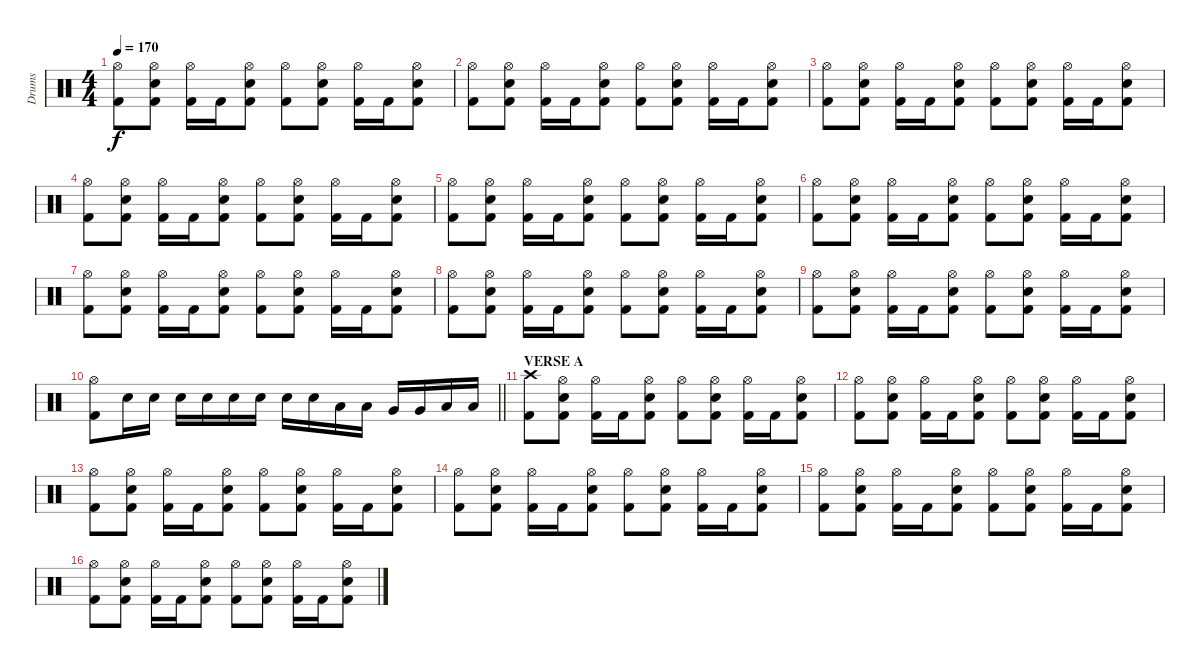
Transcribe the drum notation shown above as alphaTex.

\track ("Drums" "Drums") {instrument percussion}
\staff {score}
\articulation defaults
\ts (4 4)
\tempo 170
\clef neutral
\ks c
("Hi-Hat (open)" "Kick (hit) 2").8{dy f} ("Hi-Hat (open)" "Snare (hit) 2" "Kick (hit) 2").8 ("Hi-Hat (open)" "Kick (hit) 2").16 "Kick (hit) 2".16 ("Hi-Hat (open)" "Snare (hit) 2" "Kick (hit) 2").8 ("Hi-Hat (open)" "Kick (hit) 2").8 ("Hi-Hat (open)" "Snare (hit) 2" "Kick (hit) 2").8 ("Hi-Hat (open)" "Kick (hit) 2").16 "Kick (hit) 2".16 ("Hi-Hat (open)" "Snare (hit) 2" "Kick (hit) 2").8 |
("Hi-Hat (open)" "Kick (hit) 2").8 ("Hi-Hat (open)" "Snare (hit) 2" "Kick (hit) 2").8 ("Hi-Hat (open)" "Kick (hit) 2").16 "Kick (hit) 2".16 ("Hi-Hat (open)" "Snare (hit) 2" "Kick (hit) 2").8 ("Hi-Hat (open)" "Kick (hit) 2").8 ("Hi-Hat (open)" "Snare (hit) 2" "Kick (hit) 2").8 ("Hi-Hat (open)" "Kick (hit) 2").16 "Kick (hit) 2".16 ("Hi-Hat (open)" "Snare (hit) 2" "Kick (hit) 2").8 |
("Hi-Hat (open)" "Kick (hit) 2").8 ("Hi-Hat (open)" "Snare (hit) 2" "Kick (hit) 2").8 ("Hi-Hat (open)" "Kick (hit) 2").16 "Kick (hit) 2".16 ("Hi-Hat (open)" "Snare (hit) 2" "Kick (hit) 2").8 ("Hi-Hat (open)" "Kick (hit) 2").8 ("Hi-Hat (open)" "Snare (hit) 2" "Kick (hit) 2").8 ("Hi-Hat (open)" "Kick (hit) 2").16 "Kick (hit) 2".16 ("Hi-Hat (open)" "Snare (hit) 2" "Kick (hit) 2").8 |
("Hi-Hat (open)" "Kick (hit) 2").8 ("Hi-Hat (open)" "Snare (hit) 2" "Kick (hit) 2").8 ("Hi-Hat (open)" "Kick (hit) 2").16 "Kick (hit) 2".16 ("Hi-Hat (open)" "Snare (hit) 2" "Kick (hit) 2").8 ("Hi-Hat (open)" "Kick (hit) 2").8 ("Hi-Hat (open)" "Snare (hit) 2" "Kick (hit) 2").8 ("Hi-Hat (open)" "Kick (hit) 2").16 "Kick (hit) 2".16 ("Hi-Hat (open)" "Snare (hit) 2" "Kick (hit) 2").8 |
("Hi-Hat (open)" "Kick (hit) 2").8 ("Hi-Hat (open)" "Snare (hit) 2" "Kick (hit) 2").8 ("Hi-Hat (open)" "Kick (hit) 2").16 "Kick (hit) 2".16 ("Hi-Hat (open)" "Snare (hit) 2" "Kick (hit) 2").8 ("Hi-Hat (open)" "Kick (hit) 2").8 ("Hi-Hat (open)" "Snare (hit) 2" "Kick (hit) 2").8 ("Hi-Hat (open)" "Kick (hit) 2").16 "Kick (hit) 2".16 ("Hi-Hat (open)" "Snare (hit) 2" "Kick (hit) 2").8 |
("Hi-Hat (open)" "Kick (hit) 2").8 ("Hi-Hat (open)" "Snare (hit) 2" "Kick (hit) 2").8 ("Hi-Hat (open)" "Kick (hit) 2").16 "Kick (hit) 2".16 ("Hi-Hat (open)" "Snare (hit) 2" "Kick (hit) 2").8 ("Hi-Hat (open)" "Kick (hit) 2").8 ("Hi-Hat (open)" "Snare (hit) 2" "Kick (hit) 2").8 ("Hi-Hat (open)" "Kick (hit) 2").16 "Kick (hit) 2".16 ("Hi-Hat (open)" "Snare (hit) 2" "Kick (hit) 2").8 |
("Hi-Hat (open)" "Kick (hit) 2").8 ("Hi-Hat (open)" "Snare (hit) 2" "Kick (hit) 2").8 ("Hi-Hat (open)" "Kick (hit) 2").16 "Kick (hit) 2".16 ("Hi-Hat (open)" "Snare (hit) 2" "Kick (hit) 2").8 ("Hi-Hat (open)" "Kick (hit) 2").8 ("Hi-Hat (open)" "Snare (hit) 2" "Kick (hit) 2").8 ("Hi-Hat (open)" "Kick (hit) 2").16 "Kick (hit) 2".16 ("Hi-Hat (open)" "Snare (hit) 2" "Kick (hit) 2").8 |
("Hi-Hat (open)" "Kick (hit) 2").8 ("Hi-Hat (open)" "Snare (hit) 2" "Kick (hit) 2").8 ("Hi-Hat (open)" "Kick (hit) 2").16 "Kick (hit) 2".16 ("Hi-Hat (open)" "Snare (hit) 2" "Kick (hit) 2").8 ("Hi-Hat (open)" "Kick (hit) 2").8 ("Hi-Hat (open)" "Snare (hit) 2" "Kick (hit) 2").8 ("Hi-Hat (open)" "Kick (hit) 2").16 "Kick (hit) 2".16 ("Hi-Hat (open)" "Snare (hit) 2" "Kick (hit) 2").8 |
("Hi-Hat (open)" "Kick (hit) 2").8 ("Hi-Hat (open)" "Snare (hit) 2" "Kick (hit) 2").8 ("Hi-Hat (open)" "Kick (hit) 2").16 "Kick (hit) 2".16 ("Hi-Hat (open)" "Snare (hit) 2" "Kick (hit) 2").8 ("Hi-Hat (open)" "Kick (hit) 2").8 ("Hi-Hat (open)" "Snare (hit) 2" "Kick (hit) 2").8 ("Hi-Hat (open)" "Kick (hit) 2").16 "Kick (hit) 2".16 ("Hi-Hat (open)" "Snare (hit) 2" "Kick (hit) 2").8 |
\barLineRight lightlight
("Hi-Hat (open)" "Kick (hit) 2").8 "Snare (hit) 2".16 "Snare (hit) 2".16 "Snare (hit) 2".16 "Snare (hit) 2".16 "Snare (hit) 2".16 "Snare (hit) 2".16 "Snare (hit) 2".16 "Snare (hit) 2".16 "Low Tom (hit)".16 "Low Tom (hit)".16 "Very Low Tom (hit)".16 "Very Low Tom (hit)".16 "Low Floor Tom (hit)".16 "Low Floor Tom (hit)".16 |
\section ("" "VERSE A")
("Crash high (hit)" "Kick (hit) 2").8 ("Hi-Hat (open)" "Snare (hit) 2" "Kick (hit) 2").8 ("Hi-Hat (open)" "Kick (hit) 2").16 "Kick (hit) 2".16 ("Hi-Hat (open)" "Snare (hit) 2" "Kick (hit) 2").8 ("Hi-Hat (open)" "Kick (hit) 2").8 ("Hi-Hat (open)" "Snare (hit) 2" "Kick (hit) 2").8 ("Hi-Hat (open)" "Kick (hit) 2").16 "Kick (hit) 2".16 ("Hi-Hat (open)" "Snare (hit) 2" "Kick (hit) 2").8 |
("Hi-Hat (open)" "Kick (hit) 2").8 ("Hi-Hat (open)" "Snare (hit) 2" "Kick (hit) 2").8 ("Hi-Hat (open)" "Kick (hit) 2").16 "Kick (hit) 2".16 ("Hi-Hat (open)" "Snare (hit) 2" "Kick (hit) 2").8 ("Hi-Hat (open)" "Kick (hit) 2").8 ("Hi-Hat (open)" "Snare (hit) 2" "Kick (hit) 2").8 ("Hi-Hat (open)" "Kick (hit) 2").16 "Kick (hit) 2".16 ("Hi-Hat (open)" "Snare (hit) 2" "Kick (hit) 2").8 |
("Hi-Hat (open)" "Kick (hit) 2").8 ("Hi-Hat (open)" "Snare (hit) 2" "Kick (hit) 2").8 ("Hi-Hat (open)" "Kick (hit) 2").16 "Kick (hit) 2".16 ("Hi-Hat (open)" "Snare (hit) 2" "Kick (hit) 2").8 ("Hi-Hat (open)" "Kick (hit) 2").8 ("Hi-Hat (open)" "Snare (hit) 2" "Kick (hit) 2").8 ("Hi-Hat (open)" "Kick (hit) 2").16 "Kick (hit) 2".16 ("Hi-Hat (open)" "Snare (hit) 2" "Kick (hit) 2").8 |
("Hi-Hat (open)" "Kick (hit) 2").8 ("Hi-Hat (open)" "Snare (hit) 2" "Kick (hit) 2").8 ("Hi-Hat (open)" "Kick (hit) 2").16 "Kick (hit) 2".16 ("Hi-Hat (open)" "Snare (hit) 2" "Kick (hit) 2").8 ("Hi-Hat (open)" "Kick (hit) 2").8 ("Hi-Hat (open)" "Snare (hit) 2" "Kick (hit) 2").8 ("Hi-Hat (open)" "Kick (hit) 2").16 "Kick (hit) 2".16 ("Hi-Hat (open)" "Snare (hit) 2" "Kick (hit) 2").8 |
("Hi-Hat (open)" "Kick (hit) 2").8 ("Hi-Hat (open)" "Snare (hit) 2" "Kick (hit) 2").8 ("Hi-Hat (open)" "Kick (hit) 2").16 "Kick (hit) 2".16 ("Hi-Hat (open)" "Snare (hit) 2" "Kick (hit) 2").8 ("Hi-Hat (open)" "Kick (hit) 2").8 ("Hi-Hat (open)" "Snare (hit) 2" "Kick (hit) 2").8 ("Hi-Hat (open)" "Kick (hit) 2").16 "Kick (hit) 2".16 ("Hi-Hat (open)" "Snare (hit) 2" "Kick (hit) 2").8 |
("Hi-Hat (open)" "Kick (hit) 2").8 ("Hi-Hat (open)" "Snare (hit) 2" "Kick (hit) 2").8 ("Hi-Hat (open)" "Kick (hit) 2").16 "Kick (hit) 2".16 ("Hi-Hat (open)" "Snare (hit) 2" "Kick (hit) 2").8 ("Hi-Hat (open)" "Kick (hit) 2").8 ("Hi-Hat (open)" "Snare (hit) 2" "Kick (hit) 2").8 ("Hi-Hat (open)" "Kick (hit) 2").16 "Kick (hit) 2".16 ("Hi-Hat (open)" "Snare (hit) 2" "Kick (hit) 2").8
